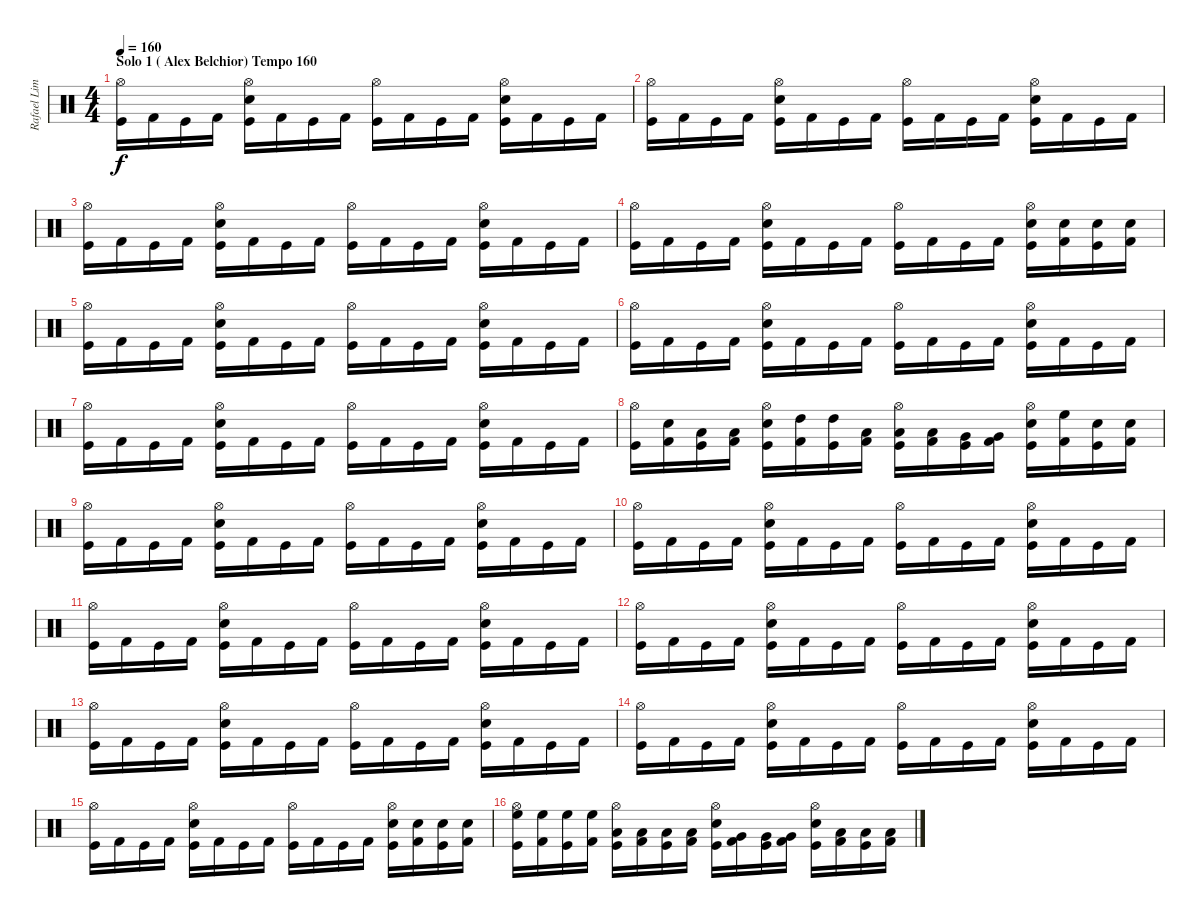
\track ("Rafael Lima" "Rafael Lim") {instrument percussion}
\staff {score}
\articulation defaults
\ts (4 4)
\section ("" "Solo 1 ( Alex Belchior) Tempo 160")
\tempo 160
\clef neutral
\ks c
("Hi-Hat (open)" "Kick (hit)").16{dy f} "Kick (hit) 2".16 "Kick (hit)".16 "Kick (hit) 2".16 ("Hi-Hat (open)" "Electric Snare (hit)" "Kick (hit)").16 "Kick (hit) 2".16 "Kick (hit)".16 "Kick (hit) 2".16 ("Hi-Hat (open)" "Kick (hit)").16 "Kick (hit) 2".16 "Kick (hit)".16 "Kick (hit) 2".16 ("Hi-Hat (open)" "Electric Snare (hit)" "Kick (hit)").16 "Kick (hit) 2".16 "Kick (hit)".16 "Kick (hit) 2".16 |
("Hi-Hat (open)" "Kick (hit)").16 "Kick (hit) 2".16 "Kick (hit)".16 "Kick (hit) 2".16 ("Hi-Hat (open)" "Electric Snare (hit)" "Kick (hit)").16 "Kick (hit) 2".16 "Kick (hit)".16 "Kick (hit) 2".16 ("Hi-Hat (open)" "Kick (hit)").16 "Kick (hit) 2".16 "Kick (hit)".16 "Kick (hit) 2".16 ("Hi-Hat (open)" "Electric Snare (hit)" "Kick (hit)").16 "Kick (hit) 2".16 "Kick (hit)".16 "Kick (hit) 2".16 |
("Hi-Hat (open)" "Kick (hit)").16 "Kick (hit) 2".16 "Kick (hit)".16 "Kick (hit) 2".16 ("Hi-Hat (open)" "Electric Snare (hit)" "Kick (hit)").16 "Kick (hit) 2".16 "Kick (hit)".16 "Kick (hit) 2".16 ("Hi-Hat (open)" "Kick (hit)").16 "Kick (hit) 2".16 "Kick (hit)".16 "Kick (hit) 2".16 ("Hi-Hat (open)" "Electric Snare (hit)" "Kick (hit)").16 "Kick (hit) 2".16 "Kick (hit)".16 "Kick (hit) 2".16 |
("Hi-Hat (open)" "Kick (hit)").16 "Kick (hit) 2".16 "Kick (hit)".16 "Kick (hit) 2".16 ("Hi-Hat (open)" "Electric Snare (hit)" "Kick (hit)").16 "Kick (hit) 2".16 "Kick (hit)".16 "Kick (hit) 2".16 ("Hi-Hat (open)" "Kick (hit)").16 "Kick (hit) 2".16 "Kick (hit)".16 "Kick (hit) 2".16 ("Hi-Hat (open)" "Electric Snare (hit)" "Kick (hit)").16 ("Electric Snare (hit)" "Kick (hit) 2").16 ("Electric Snare (hit)" "Kick (hit)").16 ("Electric Snare (hit)" "Kick (hit) 2").16 |
("Hi-Hat (open)" "Kick (hit)").16 "Kick (hit) 2".16 "Kick (hit)".16 "Kick (hit) 2".16 ("Hi-Hat (open)" "Electric Snare (hit)" "Kick (hit)").16 "Kick (hit) 2".16 "Kick (hit)".16 "Kick (hit) 2".16 ("Hi-Hat (open)" "Kick (hit)").16 "Kick (hit) 2".16 "Kick (hit)".16 "Kick (hit) 2".16 ("Hi-Hat (open)" "Electric Snare (hit)" "Kick (hit)").16 "Kick (hit) 2".16 "Kick (hit)".16 "Kick (hit) 2".16 |
("Hi-Hat (open)" "Kick (hit)").16 "Kick (hit) 2".16 "Kick (hit)".16 "Kick (hit) 2".16 ("Hi-Hat (open)" "Electric Snare (hit)" "Kick (hit)").16 "Kick (hit) 2".16 "Kick (hit)".16 "Kick (hit) 2".16 ("Hi-Hat (open)" "Kick (hit)").16 "Kick (hit) 2".16 "Kick (hit)".16 "Kick (hit) 2".16 ("Hi-Hat (open)" "Electric Snare (hit)" "Kick (hit)").16 "Kick (hit) 2".16 "Kick (hit)".16 "Kick (hit) 2".16 |
("Hi-Hat (open)" "Kick (hit)").16 "Kick (hit) 2".16 "Kick (hit)".16 "Kick (hit) 2".16 ("Hi-Hat (open)" "Electric Snare (hit)" "Kick (hit)").16 "Kick (hit) 2".16 "Kick (hit)".16 "Kick (hit) 2".16 ("Hi-Hat (open)" "Kick (hit)").16 "Kick (hit) 2".16 "Kick (hit)".16 "Kick (hit) 2".16 ("Hi-Hat (open)" "Electric Snare (hit)" "Kick (hit)").16 "Kick (hit) 2".16 "Kick (hit)".16 "Kick (hit) 2".16 |
("Hi-Hat (open)" "Kick (hit)").16 ("Electric Snare (hit)" "Kick (hit) 2").16 ("Low Tom (hit)" "Kick (hit)").16 ("Low Tom (hit)" "Kick (hit) 2").16 ("Hi-Hat (open)" "Electric Snare (hit)" "Kick (hit)").16 ("High Tom (hit)" "Kick (hit) 2").16 ("High Tom (hit)" "Kick (hit)").16 ("Low Floor Tom (hit)" "Kick (hit) 2").16 ("Hi-Hat (open)" "Low Floor Tom (hit)" "Kick (hit)").16 ("Low Floor Tom (hit)" "Kick (hit) 2").16 ("Very Low Tom (hit)" "Kick (hit)").16 ("Very Low Tom (hit)" "Kick (hit) 2").16 ("Hi-Hat (open)" "Electric Snare (hit)" "Kick (hit)").16 ("High Floor Tom (hit)" "Kick (hit) 2").16 ("Electric Snare (hit)" "Kick (hit)").16 ("Electric Snare (hit)" "Kick (hit) 2").16 |
("Hi-Hat (open)" "Kick (hit)").16 "Kick (hit) 2".16 "Kick (hit)".16 "Kick (hit) 2".16 ("Hi-Hat (open)" "Electric Snare (hit)" "Kick (hit)").16 "Kick (hit) 2".16 "Kick (hit)".16 "Kick (hit) 2".16 ("Hi-Hat (open)" "Kick (hit)").16 "Kick (hit) 2".16 "Kick (hit)".16 "Kick (hit) 2".16 ("Hi-Hat (open)" "Electric Snare (hit)" "Kick (hit)").16 "Kick (hit) 2".16 "Kick (hit)".16 "Kick (hit) 2".16 |
("Hi-Hat (open)" "Kick (hit)").16 "Kick (hit) 2".16 "Kick (hit)".16 "Kick (hit) 2".16 ("Hi-Hat (open)" "Electric Snare (hit)" "Kick (hit)").16 "Kick (hit) 2".16 "Kick (hit)".16 "Kick (hit) 2".16 ("Hi-Hat (open)" "Kick (hit)").16 "Kick (hit) 2".16 "Kick (hit)".16 "Kick (hit) 2".16 ("Hi-Hat (open)" "Electric Snare (hit)" "Kick (hit)").16 "Kick (hit) 2".16 "Kick (hit)".16 "Kick (hit) 2".16 |
("Hi-Hat (open)" "Kick (hit)").16 "Kick (hit) 2".16 "Kick (hit)".16 "Kick (hit) 2".16 ("Hi-Hat (open)" "Electric Snare (hit)" "Kick (hit)").16 "Kick (hit) 2".16 "Kick (hit)".16 "Kick (hit) 2".16 ("Hi-Hat (open)" "Kick (hit)").16 "Kick (hit) 2".16 "Kick (hit)".16 "Kick (hit) 2".16 ("Hi-Hat (open)" "Electric Snare (hit)" "Kick (hit)").16 "Kick (hit) 2".16 "Kick (hit)".16 "Kick (hit) 2".16 |
("Hi-Hat (open)" "Kick (hit)").16 "Kick (hit) 2".16 "Kick (hit)".16 "Kick (hit) 2".16 ("Hi-Hat (open)" "Electric Snare (hit)" "Kick (hit)").16 "Kick (hit) 2".16 "Kick (hit)".16 "Kick (hit) 2".16 ("Hi-Hat (open)" "Kick (hit)").16 "Kick (hit) 2".16 "Kick (hit)".16 "Kick (hit) 2".16 ("Hi-Hat (open)" "Electric Snare (hit)" "Kick (hit)").16 "Kick (hit) 2".16 "Kick (hit)".16 "Kick (hit) 2".16 |
("Hi-Hat (open)" "Kick (hit)").16 "Kick (hit) 2".16 "Kick (hit)".16 "Kick (hit) 2".16 ("Hi-Hat (open)" "Electric Snare (hit)" "Kick (hit)").16 "Kick (hit) 2".16 "Kick (hit)".16 "Kick (hit) 2".16 ("Hi-Hat (open)" "Kick (hit)").16 "Kick (hit) 2".16 "Kick (hit)".16 "Kick (hit) 2".16 ("Hi-Hat (open)" "Electric Snare (hit)" "Kick (hit)").16 "Kick (hit) 2".16 "Kick (hit)".16 "Kick (hit) 2".16 |
("Hi-Hat (open)" "Kick (hit)").16 "Kick (hit) 2".16 "Kick (hit)".16 "Kick (hit) 2".16 ("Hi-Hat (open)" "Electric Snare (hit)" "Kick (hit)").16 "Kick (hit) 2".16 "Kick (hit)".16 "Kick (hit) 2".16 ("Hi-Hat (open)" "Kick (hit)").16 "Kick (hit) 2".16 "Kick (hit)".16 "Kick (hit) 2".16 ("Hi-Hat (open)" "Electric Snare (hit)" "Kick (hit)").16 "Kick (hit) 2".16 "Kick (hit)".16 "Kick (hit) 2".16 |
("Hi-Hat (open)" "Kick (hit)").16 "Kick (hit) 2".16 "Kick (hit)".16 "Kick (hit) 2".16 ("Hi-Hat (open)" "Electric Snare (hit)" "Kick (hit)").16 "Kick (hit) 2".16 "Kick (hit)".16 "Kick (hit) 2".16 ("Hi-Hat (open)" "Kick (hit)").16 "Kick (hit) 2".16 "Kick (hit)".16 "Kick (hit) 2".16 ("Hi-Hat (open)" "Electric Snare (hit)" "Kick (hit)").16 ("Electric Snare (hit)" "Kick (hit) 2").16 ("Electric Snare (hit)" "Kick (hit)").16 ("Electric Snare (hit)" "Kick (hit) 2").16 |
("Hi-Hat (open)" "High Floor Tom (hit)" "Kick (hit)").16 ("High Floor Tom (hit)" "Kick (hit) 2").16 ("High Floor Tom (hit)" "Kick (hit)").16 ("High Floor Tom (hit)" "Kick (hit) 2").16 ("Hi-Hat (open)" "Low Tom (hit)" "Kick (hit)").16 ("Low Tom (hit)" "Kick (hit) 2").16 ("Low Tom (hit)" "Kick (hit)").16 ("Low Tom (hit)" "Kick (hit) 2").16 ("Hi-Hat (open)" "Electric Snare (hit)" "Kick (hit)").16 ("Very Low Tom (hit)" "Kick (hit) 2").16 ("Very Low Tom (hit)" "Kick (hit)").16 ("Very Low Tom (hit)" "Kick (hit) 2").16 ("Hi-Hat (open)" "Electric Snare (hit)" "Kick (hit)").16 ("Low Floor Tom (hit)" "Kick (hit) 2").16 ("Low Floor Tom (hit)" "Kick (hit)").16 ("Low Floor Tom (hit)" "Kick (hit) 2").16
